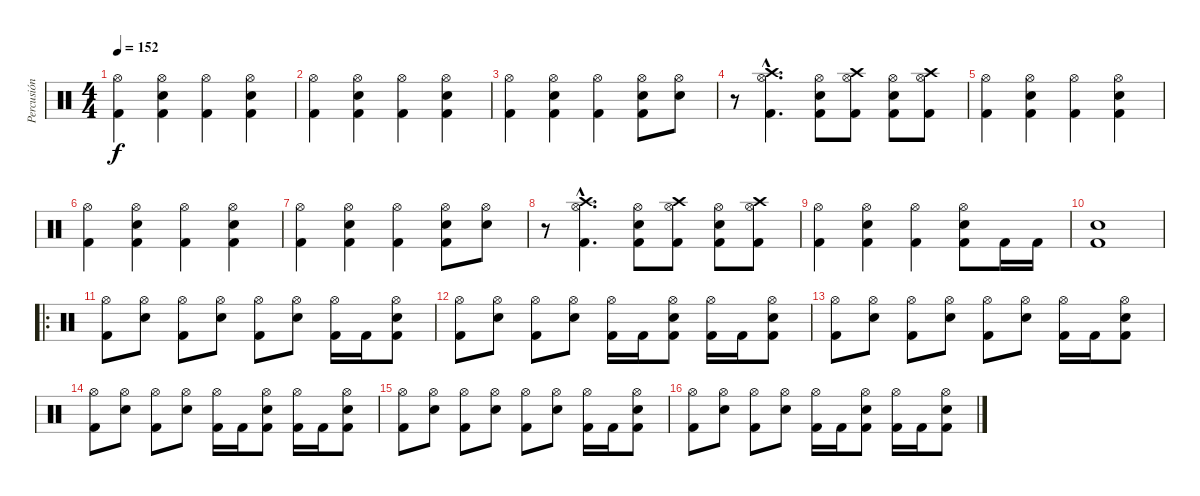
\track ("Percusión" "Percusión") {instrument percussion}
\staff {score}
\articulation defaults
\ts (4 4)
\tempo 152
\clef neutral
\ks c
("Hi-Hat (open)" "Kick (hit) 2").4{dy f} ("Hi-Hat (open)" "Snare (hit) 2" "Kick (hit) 2").4 ("Hi-Hat (open)" "Kick (hit) 2").4 ("Hi-Hat (open)" "Snare (hit) 2" "Kick (hit) 2").4 |
("Hi-Hat (open)" "Kick (hit) 2").4 ("Hi-Hat (open)" "Snare (hit) 2" "Kick (hit) 2").4 ("Hi-Hat (open)" "Kick (hit) 2").4 ("Hi-Hat (open)" "Snare (hit) 2" "Kick (hit) 2").4 |
("Hi-Hat (open)" "Kick (hit) 2").4 ("Hi-Hat (open)" "Snare (hit) 2" "Kick (hit) 2").4 ("Hi-Hat (open)" "Kick (hit) 2").4 ("Hi-Hat (open)" "Snare (hit) 2" "Kick (hit) 2").8 ("Hi-Hat (open)" "Snare (hit) 2").8 |
r.8 ("Crash high (hit)"{hac} "Hi-Hat (open)"{hac} "Kick (hit) 2"{hac}).4{d} ("Hi-Hat (open)" "Snare (hit) 2" "Kick (hit) 2").8 ("Crash high (hit)" "Hi-Hat (open)" "Kick (hit) 2").8 ("Hi-Hat (open)" "Snare (hit) 2" "Kick (hit) 2").8 ("Crash high (hit)" "Hi-Hat (open)" "Kick (hit) 2").8 |
("Hi-Hat (open)" "Kick (hit) 2").4 ("Hi-Hat (open)" "Snare (hit) 2" "Kick (hit) 2").4 ("Hi-Hat (open)" "Kick (hit) 2").4 ("Hi-Hat (open)" "Snare (hit) 2" "Kick (hit) 2").4 |
("Hi-Hat (open)" "Kick (hit) 2").4 ("Hi-Hat (open)" "Snare (hit) 2" "Kick (hit) 2").4 ("Hi-Hat (open)" "Kick (hit) 2").4 ("Hi-Hat (open)" "Snare (hit) 2" "Kick (hit) 2").4 |
("Hi-Hat (open)" "Kick (hit) 2").4 ("Hi-Hat (open)" "Snare (hit) 2" "Kick (hit) 2").4 ("Hi-Hat (open)" "Kick (hit) 2").4 ("Hi-Hat (open)" "Snare (hit) 2" "Kick (hit) 2").8 ("Hi-Hat (open)" "Snare (hit) 2").8 |
r.8 ("Crash high (hit)"{hac} "Hi-Hat (open)"{hac} "Kick (hit) 2"{hac}).4{d} ("Hi-Hat (open)" "Snare (hit) 2" "Kick (hit) 2").8 ("Crash high (hit)" "Hi-Hat (open)" "Kick (hit) 2").8 ("Hi-Hat (open)" "Snare (hit) 2" "Kick (hit) 2").8 ("Crash high (hit)" "Hi-Hat (open)" "Kick (hit) 2").8 |
("Hi-Hat (open)" "Kick (hit) 2").4 ("Hi-Hat (open)" "Snare (hit) 2" "Kick (hit) 2").4 ("Hi-Hat (open)" "Kick (hit) 2").4 ("Hi-Hat (open)" "Snare (hit) 2" "Kick (hit) 2").8 "Kick (hit) 2".16 "Kick (hit) 2".16 |
("Snare (hit) 2" "Kick (hit) 2").1 |
\ro
("Hi-Hat (open)" "Kick (hit) 2").8 ("Hi-Hat (open)" "Snare (hit) 2").8 ("Hi-Hat (open)" "Kick (hit) 2").8 ("Hi-Hat (open)" "Snare (hit) 2").8 ("Hi-Hat (open)" "Kick (hit) 2").8 ("Hi-Hat (open)" "Snare (hit) 2").8 ("Hi-Hat (open)" "Kick (hit) 2").16 "Kick (hit) 2".16 ("Hi-Hat (open)" "Snare (hit) 2" "Kick (hit) 2").8 |
("Hi-Hat (open)" "Kick (hit) 2").8 ("Hi-Hat (open)" "Snare (hit) 2").8 ("Hi-Hat (open)" "Kick (hit) 2").8 ("Hi-Hat (open)" "Snare (hit) 2").8 ("Hi-Hat (open)" "Kick (hit) 2").16 "Kick (hit) 2".16 ("Hi-Hat (open)" "Snare (hit) 2" "Kick (hit) 2").8 ("Hi-Hat (open)" "Kick (hit) 2").16 "Kick (hit) 2".16 ("Hi-Hat (open)" "Snare (hit) 2" "Kick (hit) 2").8 |
("Hi-Hat (open)" "Kick (hit) 2").8 ("Hi-Hat (open)" "Snare (hit) 2").8 ("Hi-Hat (open)" "Kick (hit) 2").8 ("Hi-Hat (open)" "Snare (hit) 2").8 ("Hi-Hat (open)" "Kick (hit) 2").8 ("Hi-Hat (open)" "Snare (hit) 2").8 ("Hi-Hat (open)" "Kick (hit) 2").16 "Kick (hit) 2".16 ("Hi-Hat (open)" "Snare (hit) 2" "Kick (hit) 2").8 |
("Hi-Hat (open)" "Kick (hit) 2").8 ("Hi-Hat (open)" "Snare (hit) 2").8 ("Hi-Hat (open)" "Kick (hit) 2").8 ("Hi-Hat (open)" "Snare (hit) 2").8 ("Hi-Hat (open)" "Kick (hit) 2").16 "Kick (hit) 2".16 ("Hi-Hat (open)" "Snare (hit) 2" "Kick (hit) 2").8 ("Hi-Hat (open)" "Kick (hit) 2").16 "Kick (hit) 2".16 ("Hi-Hat (open)" "Snare (hit) 2" "Kick (hit) 2").8 |
("Hi-Hat (open)" "Kick (hit) 2").8 ("Hi-Hat (open)" "Snare (hit) 2").8 ("Hi-Hat (open)" "Kick (hit) 2").8 ("Hi-Hat (open)" "Snare (hit) 2").8 ("Hi-Hat (open)" "Kick (hit) 2").8 ("Hi-Hat (open)" "Snare (hit) 2").8 ("Hi-Hat (open)" "Kick (hit) 2").16 "Kick (hit) 2".16 ("Hi-Hat (open)" "Snare (hit) 2" "Kick (hit) 2").8 |
("Hi-Hat (open)" "Kick (hit) 2").8 ("Hi-Hat (open)" "Snare (hit) 2").8 ("Hi-Hat (open)" "Kick (hit) 2").8 ("Hi-Hat (open)" "Snare (hit) 2").8 ("Hi-Hat (open)" "Kick (hit) 2").16 "Kick (hit) 2".16 ("Hi-Hat (open)" "Snare (hit) 2" "Kick (hit) 2").8 ("Hi-Hat (open)" "Kick (hit) 2").16 "Kick (hit) 2".16 ("Hi-Hat (open)" "Snare (hit) 2" "Kick (hit) 2").8
